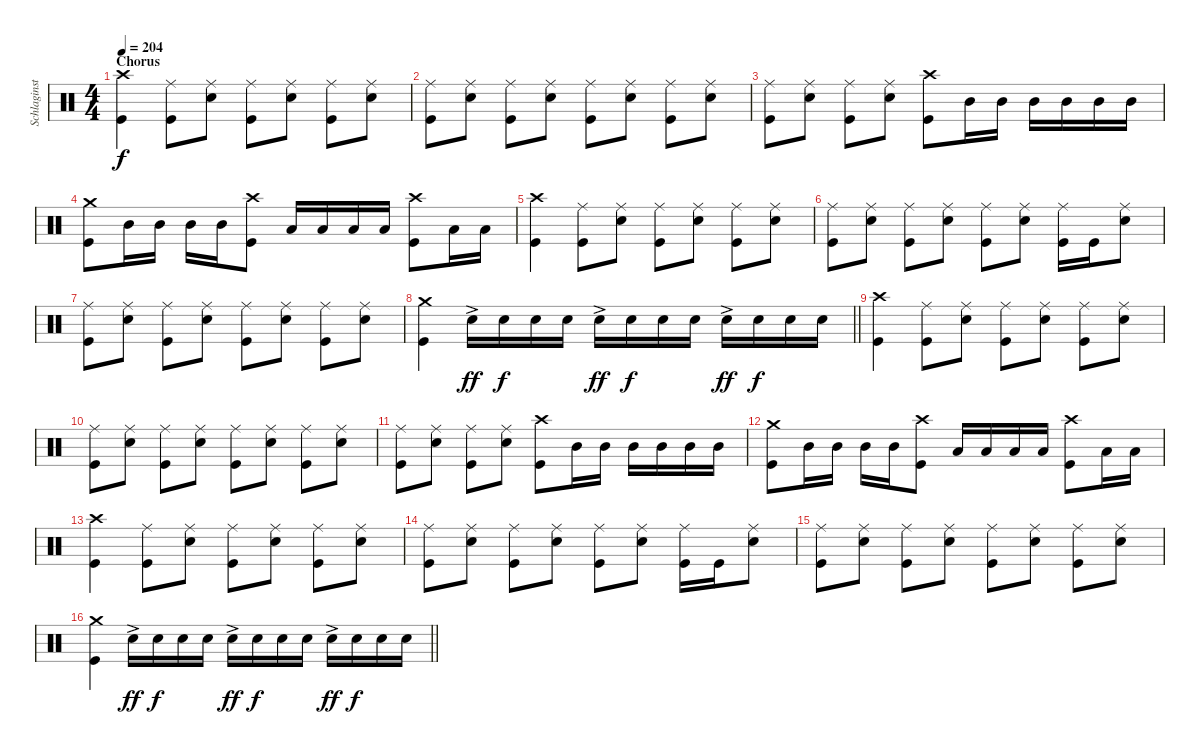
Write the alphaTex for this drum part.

\track ("Schlaginstrumente - Auswahl" "Schlaginst") {instrument percussion}
\staff {score}
\articulation defaults
\ts (4 4)
\section ("" "Chorus")
\tempo 204
\clef neutral
\ks c
("Kick (hit)" "Crash high (hit)").4{dy f} ("Kick (hit)" "Ride (middle)").8 ("Snare (hit) 2" "Ride (middle)").8 ("Kick (hit)" "Ride (middle)").8 ("Snare (hit) 2" "Ride (middle)").8 ("Kick (hit)" "Ride (middle)").8 ("Snare (hit) 2" "Ride (middle)").8 |
("Kick (hit)" "Ride (middle)").8 ("Snare (hit) 2" "Ride (middle)").8 ("Kick (hit)" "Ride (middle)").8 ("Snare (hit) 2" "Ride (middle)").8 ("Kick (hit)" "Ride (middle)").8 ("Snare (hit) 2" "Ride (middle)").8 ("Kick (hit)" "Ride (middle)").8 ("Snare (hit) 2" "Ride (middle)").8 |
("Kick (hit)" "Ride (middle)").8 ("Snare (hit) 2" "Ride (middle)").8 ("Kick (hit)" "Ride (middle)").8 ("Snare (hit) 2" "Ride (middle)").8 ("Kick (hit)" "Crash high (hit)").8 "Mid Tom (hit)".16 "Mid Tom (hit)".16 "Mid Tom (hit)".16 "Mid Tom (hit)".16 "Mid Tom (hit)".16 "Mid Tom (hit)".16 |
("Kick (hit)" "Crash medium (hit)").8 "Mid Tom (hit)".16 "Mid Tom (hit)".16 "Mid Tom (hit)".16 "Mid Tom (hit)".16 ("Kick (hit)" "Crash high (hit)").8 "Low Tom (hit)".16 "Low Tom (hit)".16 "Low Tom (hit)".16 "Low Tom (hit)".16 ("Kick (hit)" "Crash high (hit)").8 "Low Tom (hit)".16 "Low Tom (hit)".16 |
("Kick (hit)" "Crash high (hit)").4 ("Kick (hit)" "Ride (middle)").8 ("Snare (hit) 2" "Ride (middle)").8 ("Kick (hit)" "Ride (middle)").8 ("Snare (hit) 2" "Ride (middle)").8 ("Kick (hit)" "Ride (middle)").8 ("Snare (hit) 2" "Ride (middle)").8 |
("Kick (hit)" "Ride (middle)").8 ("Snare (hit) 2" "Ride (middle)").8 ("Kick (hit)" "Ride (middle)").8 ("Snare (hit) 2" "Ride (middle)").8 ("Kick (hit)" "Ride (middle)").8 ("Snare (hit) 2" "Ride (middle)").8 ("Kick (hit)" "Ride (middle)").16 "Kick (hit)".16 ("Snare (hit) 2" "Ride (middle)").8 |
("Kick (hit)" "Ride (middle)").8 ("Snare (hit) 2" "Ride (middle)").8 ("Kick (hit)" "Ride (middle)").8 ("Snare (hit) 2" "Ride (middle)").8 ("Kick (hit)" "Ride (middle)").8 ("Snare (hit) 2" "Ride (middle)").8 ("Kick (hit)" "Ride (middle)").8 ("Snare (hit) 2" "Ride (middle)").8 |
\barLineRight lightlight
("Kick (hit)" "Crash medium (hit)").4 "Snare (hit) 2"{ac}.16{dy ff} "Snare (hit) 2".16{dy f} "Snare (hit) 2".16 "Snare (hit) 2".16 "Snare (hit) 2"{ac}.16{dy ff} "Snare (hit) 2".16{dy f} "Snare (hit) 2".16 "Snare (hit) 2".16 "Snare (hit) 2"{ac}.16{dy ff} "Snare (hit) 2".16{dy f} "Snare (hit) 2".16 "Snare (hit) 2".16 |
("Kick (hit)" "Crash high (hit)").4 ("Kick (hit)" "Ride (middle)").8 ("Snare (hit) 2" "Ride (middle)").8 ("Kick (hit)" "Ride (middle)").8 ("Snare (hit) 2" "Ride (middle)").8 ("Kick (hit)" "Ride (middle)").8 ("Snare (hit) 2" "Ride (middle)").8 |
("Kick (hit)" "Ride (middle)").8 ("Snare (hit) 2" "Ride (middle)").8 ("Kick (hit)" "Ride (middle)").8 ("Snare (hit) 2" "Ride (middle)").8 ("Kick (hit)" "Ride (middle)").8 ("Snare (hit) 2" "Ride (middle)").8 ("Kick (hit)" "Ride (middle)").8 ("Snare (hit) 2" "Ride (middle)").8 |
("Kick (hit)" "Ride (middle)").8 ("Snare (hit) 2" "Ride (middle)").8 ("Kick (hit)" "Ride (middle)").8 ("Snare (hit) 2" "Ride (middle)").8 ("Kick (hit)" "Crash high (hit)").8 "Mid Tom (hit)".16 "Mid Tom (hit)".16 "Mid Tom (hit)".16 "Mid Tom (hit)".16 "Mid Tom (hit)".16 "Mid Tom (hit)".16 |
("Kick (hit)" "Crash medium (hit)").8 "Mid Tom (hit)".16 "Mid Tom (hit)".16 "Mid Tom (hit)".16 "Mid Tom (hit)".16 ("Kick (hit)" "Crash high (hit)").8 "Low Tom (hit)".16 "Low Tom (hit)".16 "Low Tom (hit)".16 "Low Tom (hit)".16 ("Kick (hit)" "Crash high (hit)").8 "Low Tom (hit)".16 "Low Tom (hit)".16 |
("Kick (hit)" "Crash high (hit)").4 ("Kick (hit)" "Ride (middle)").8 ("Snare (hit) 2" "Ride (middle)").8 ("Kick (hit)" "Ride (middle)").8 ("Snare (hit) 2" "Ride (middle)").8 ("Kick (hit)" "Ride (middle)").8 ("Snare (hit) 2" "Ride (middle)").8 |
("Kick (hit)" "Ride (middle)").8 ("Snare (hit) 2" "Ride (middle)").8 ("Kick (hit)" "Ride (middle)").8 ("Snare (hit) 2" "Ride (middle)").8 ("Kick (hit)" "Ride (middle)").8 ("Snare (hit) 2" "Ride (middle)").8 ("Kick (hit)" "Ride (middle)").16 "Kick (hit)".16 ("Snare (hit) 2" "Ride (middle)").8 |
("Kick (hit)" "Ride (middle)").8 ("Snare (hit) 2" "Ride (middle)").8 ("Kick (hit)" "Ride (middle)").8 ("Snare (hit) 2" "Ride (middle)").8 ("Kick (hit)" "Ride (middle)").8 ("Snare (hit) 2" "Ride (middle)").8 ("Kick (hit)" "Ride (middle)").8 ("Snare (hit) 2" "Ride (middle)").8 |
\barLineRight lightlight
("Kick (hit)" "Crash medium (hit)").4 "Snare (hit) 2"{ac}.16{dy ff} "Snare (hit) 2".16{dy f} "Snare (hit) 2".16 "Snare (hit) 2".16 "Snare (hit) 2"{ac}.16{dy ff} "Snare (hit) 2".16{dy f} "Snare (hit) 2".16 "Snare (hit) 2".16 "Snare (hit) 2"{ac}.16{dy ff} "Snare (hit) 2".16{dy f} "Snare (hit) 2".16 "Snare (hit) 2".16
